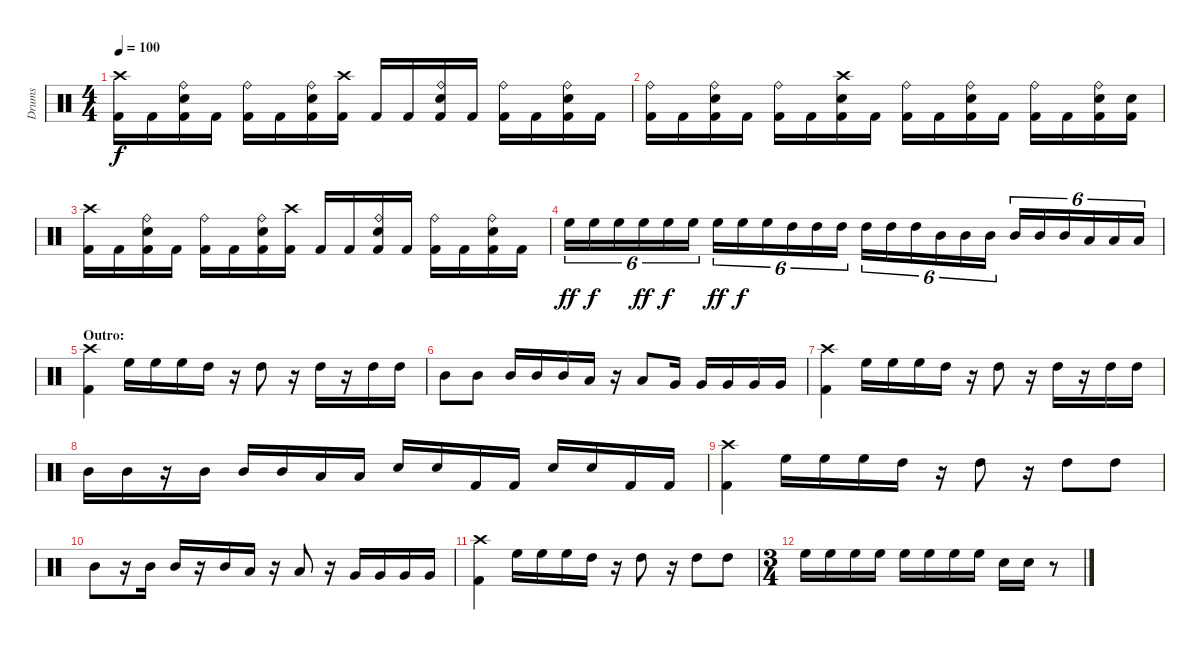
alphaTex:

\track ("Drums" "Drums") {instrument percussion}
\staff {score}
\articulation defaults
\ts (4 4)
\tempo 100
\clef neutral
\ks c
("Crash high (hit)" "Kick (hit) 2").16{dy f} "Kick (hit) 2".16 ("Ride (bell)" "Electric Snare (hit)" "Kick (hit) 2").16 "Kick (hit) 2".16 ("Ride (bell)" "Kick (hit) 2").16 "Kick (hit) 2".16 ("Ride (bell)" "Electric Snare (hit)" "Kick (hit) 2").16 ("Crash high (hit)" "Kick (hit) 2").16 "Kick (hit) 2".16 "Kick (hit) 2".16 ("Ride (bell)" "Electric Snare (hit)" "Kick (hit) 2").16 "Kick (hit) 2".16 ("Ride (bell)" "Kick (hit) 2").16 "Kick (hit) 2".16 ("Ride (bell)" "Electric Snare (hit)" "Kick (hit) 2").16 "Kick (hit) 2".16 |
("Ride (bell)" "Kick (hit) 2").16 "Kick (hit) 2".16 ("Ride (bell)" "Electric Snare (hit)" "Kick (hit) 2").16 "Kick (hit) 2".16 ("Ride (bell)" "Kick (hit) 2").16 "Kick (hit) 2".16 ("Crash high (hit)" "Electric Snare (hit)" "Kick (hit) 2").16 "Kick (hit) 2".16 ("Ride (bell)" "Kick (hit) 2").16 "Kick (hit) 2".16 ("Ride (bell)" "Electric Snare (hit)" "Kick (hit) 2").16 "Kick (hit) 2".16 ("Ride (bell)" "Kick (hit) 2").16 "Kick (hit) 2".16 ("Ride (bell)" "Electric Snare (hit)" "Kick (hit) 2").16 ("Electric Snare (hit)" "Kick (hit) 2").16 |
("Crash high (hit)" "Kick (hit) 2").16 "Kick (hit) 2".16 ("Ride (bell)" "Electric Snare (hit)" "Kick (hit) 2").16 "Kick (hit) 2".16 ("Ride (bell)" "Kick (hit) 2").16 "Kick (hit) 2".16 ("Ride (bell)" "Electric Snare (hit)" "Kick (hit) 2").16 ("Crash high (hit)" "Kick (hit) 2").16 "Kick (hit) 2".16 "Kick (hit) 2".16 ("Ride (bell)" "Electric Snare (hit)" "Kick (hit) 2").16 "Kick (hit) 2".16 ("Ride (bell)" "Kick (hit) 2").16 "Kick (hit) 2".16 ("Ride (bell)" "Electric Snare (hit)" "Kick (hit) 2").16 "Kick (hit) 2".16 |
"High Floor Tom (hit)".16{tu (6 4) dy ff} "High Floor Tom (hit)".16{tu (6 4) dy f} "High Floor Tom (hit)".16{tu (6 4)} "High Floor Tom (hit)".16{tu (6 4) dy ff} "High Floor Tom (hit)".16{tu (6 4) dy f} "High Floor Tom (hit)".16{tu (6 4)} "High Floor Tom (hit)".16{tu (6 4) dy ff} "High Floor Tom (hit)".16{tu (6 4) dy f} "High Floor Tom (hit)".16{tu (6 4)} "High Tom (hit)".16{tu (6 4)} "High Tom (hit)".16{tu (6 4)} "High Tom (hit)".16{tu (6 4)} "High Tom (hit)".16{tu (6 4)} "High Tom (hit)".16{tu (6 4)} "High Tom (hit)".16{tu (6 4)} "Mid Tom (hit)".16{tu (6 4)} "Mid Tom (hit)".16{tu (6 4)} "Mid Tom (hit)".16{tu (6 4)} "Mid Tom (hit)".16{tu (6 4)} "Mid Tom (hit)".16{tu (6 4)} "Mid Tom (hit)".16{tu (6 4)} "Low Tom (hit)".16{tu (6 4)} "Low Tom (hit)".16{tu (6 4)} "Low Tom (hit)".16{tu (6 4)} |
\section ("" "Outro:")
("Crash high (hit)" "Kick (hit) 2").4 "High Floor Tom (hit)".16 "High Floor Tom (hit)".16 "High Floor Tom (hit)".16 "High Tom (hit)".16 r.16 "High Tom (hit)".8 r.16 "High Tom (hit)".16 r.16 "High Tom (hit)".16 "High Tom (hit)".16 |
"Mid Tom (hit)".8 "Mid Tom (hit)".8 "Mid Tom (hit)".16 "Mid Tom (hit)".16 "Mid Tom (hit)".16 "Low Tom (hit)".16 r.16 "Low Tom (hit)".8 "Very Low Tom (hit)".16 "Very Low Tom (hit)".16 "Very Low Tom (hit)".16 "Very Low Tom (hit)".16 "Very Low Tom (hit)".16 |
("Crash high (hit)" "Kick (hit) 2").4 "High Floor Tom (hit)".16 "High Floor Tom (hit)".16 "High Floor Tom (hit)".16 "High Tom (hit)".16 r.16 "High Tom (hit)".8 r.16 "High Tom (hit)".16 r.16 "High Tom (hit)".16 "High Tom (hit)".16 |
"Mid Tom (hit)".16 "Mid Tom (hit)".16 r.16 "Mid Tom (hit)".16 "Mid Tom (hit)".16 "Mid Tom (hit)".16 "Low Tom (hit)".16 "Low Tom (hit)".16 "Electric Snare (hit)".16 "Electric Snare (hit)".16 "Kick (hit) 2".16 "Kick (hit) 2".16 "Electric Snare (hit)".16 "Electric Snare (hit)".16 "Kick (hit) 2".16 "Kick (hit) 2".16 |
("Crash high (hit)" "Kick (hit) 2").4 "High Floor Tom (hit)".16 "High Floor Tom (hit)".16 "High Floor Tom (hit)".16 "High Tom (hit)".16 r.16 "High Tom (hit)".8 r.16 "High Tom (hit)".8 "High Tom (hit)".8 |
"Mid Tom (hit)".8 r.16 "Mid Tom (hit)".16 "Mid Tom (hit)".16 r.16 "Mid Tom (hit)".16 "Low Tom (hit)".16 r.16 "Low Tom (hit)".8 r.16 "Very Low Tom (hit)".16 "Very Low Tom (hit)".16 "Very Low Tom (hit)".16 "Very Low Tom (hit)".16 |
("Crash high (hit)" "Kick (hit) 2").4 "High Floor Tom (hit)".16 "High Floor Tom (hit)".16 "High Floor Tom (hit)".16 "High Tom (hit)".16 r.16 "High Tom (hit)".8 r.16 "High Tom (hit)".8 "High Tom (hit)".8 |
\ts (3 4)
"High Floor Tom (hit)".16 "High Floor Tom (hit)".16 "High Floor Tom (hit)".16 "High Floor Tom (hit)".16 "High Floor Tom (hit)".16 "High Floor Tom (hit)".16 "High Floor Tom (hit)".16 "High Floor Tom (hit)".16 "Electric Snare (hit)".16 "Electric Snare (hit)".16 r.8
